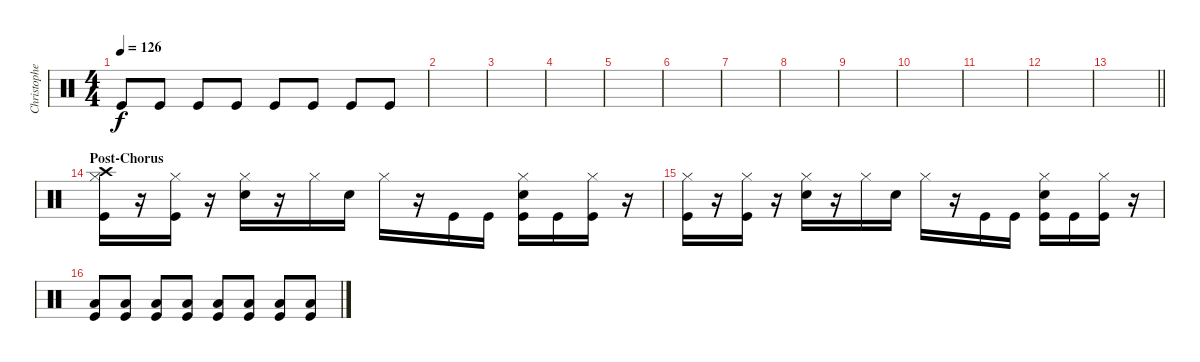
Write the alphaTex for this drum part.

\track ("Christopher - Drums" "Christophe") {instrument percussion}
\staff {score}
\articulation defaults
\ts (4 4)
\tempo 126
\clef neutral
\ks c "Kick (hit)".8{dy f} "Kick (hit)".8 "Kick (hit)".8 "Kick (hit)".8 "Kick (hit)".8 "Kick (hit)".8 "Kick (hit)".8 "Kick (hit)".8
|
|
|
|
|
|
|
|
|
|
|
|
\barLineRight lightlight
|
\section ("" "Post-Chorus")
("Crash high (hit)" "Hi-Hat (closed)" "Kick (hit)").16 r.16 ("Hi-Hat (closed)" "Kick (hit)").16 r.16 ("Hi-Hat (closed)" "Snare (hit) 2").16 r.16 "Hi-Hat (closed)".16 "Snare (hit) 2".16 "Hi-Hat (closed)".16 r.16 "Kick (hit)".16 "Kick (hit)".16 ("Hi-Hat (closed)" "Snare (hit) 2" "Kick (hit)").16 "Kick (hit)".16 ("Hi-Hat (closed)" "Kick (hit)").16 r.16 |
("Hi-Hat (closed)" "Kick (hit)").16 r.16 ("Hi-Hat (closed)" "Kick (hit)").16 r.16 ("Hi-Hat (closed)" "Snare (hit) 2").16 r.16 "Hi-Hat (closed)".16 "Snare (hit) 2".16 "Hi-Hat (closed)".16 r.16 "Kick (hit)".16 "Kick (hit)".16 ("Hi-Hat (closed)" "Snare (hit) 2" "Kick (hit)").16 "Kick (hit)".16 ("Hi-Hat (closed)" "Kick (hit)").16 r.16 |
("Low Floor Tom (hit)" "Kick (hit)").8 ("Low Floor Tom (hit)" "Kick (hit)").8 ("Low Floor Tom (hit)" "Kick (hit)").8 ("Low Floor Tom (hit)" "Kick (hit)").8 ("Low Floor Tom (hit)" "Kick (hit)").8 ("Low Floor Tom (hit)" "Kick (hit)").8 ("Low Floor Tom (hit)" "Kick (hit)").8 ("Low Floor Tom (hit)" "Kick (hit)").8
